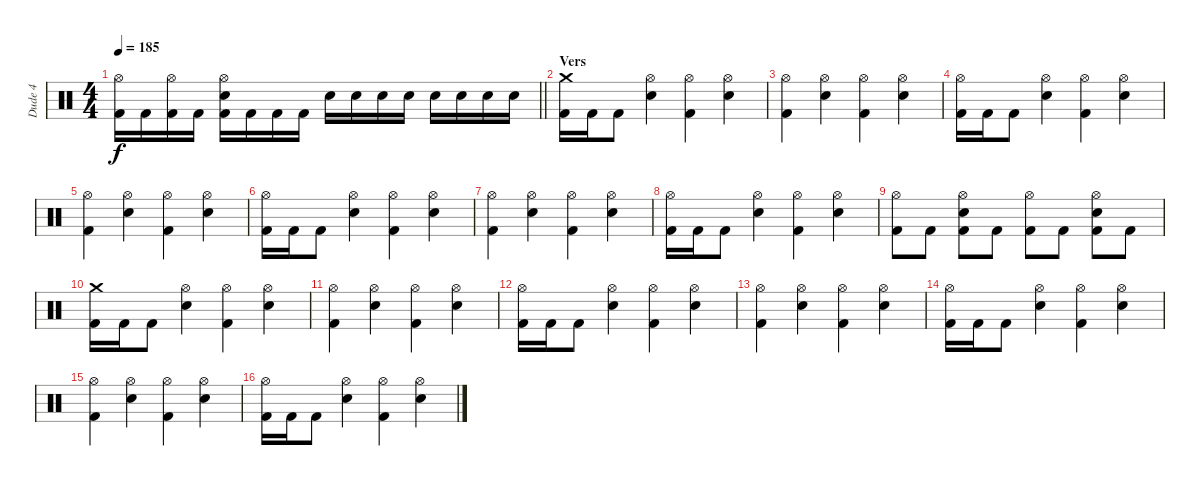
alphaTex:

\track ("Dude 4" "Dude 4") {instrument percussion}
\staff {score}
\articulation defaults
\ts (4 4)
\tempo 185
\clef neutral
\barLineRight lightlight
\ks c
("Hi-Hat (open)" "Kick (hit) 2").16{dy f} "Kick (hit) 2".16 ("Hi-Hat (open)" "Kick (hit) 2").16 "Kick (hit) 2".16 ("Hi-Hat (open)" "Electric Snare (hit)" "Kick (hit) 2").16 "Kick (hit) 2".16 "Kick (hit) 2".16 "Kick (hit) 2".16 "Electric Snare (hit)".16 "Electric Snare (hit)".16 "Electric Snare (hit)".16 "Electric Snare (hit)".16 "Electric Snare (hit)".16 "Electric Snare (hit)".16 "Electric Snare (hit)".16 "Electric Snare (hit)".16 |
\section ("" "Vers")
("Crash medium (hit)" "Kick (hit) 2").16 "Kick (hit) 2".16 "Kick (hit) 2".8 ("Hi-Hat (open)" "Electric Snare (hit)").4 ("Hi-Hat (open)" "Kick (hit) 2").4 ("Hi-Hat (open)" "Electric Snare (hit)").4 |
("Hi-Hat (open)" "Kick (hit) 2").4 ("Hi-Hat (open)" "Electric Snare (hit)").4 ("Hi-Hat (open)" "Kick (hit) 2").4 ("Hi-Hat (open)" "Electric Snare (hit)").4 |
("Hi-Hat (open)" "Kick (hit) 2").16 "Kick (hit) 2".16 "Kick (hit) 2".8 ("Hi-Hat (open)" "Electric Snare (hit)").4 ("Hi-Hat (open)" "Kick (hit) 2").4 ("Hi-Hat (open)" "Electric Snare (hit)").4 |
("Hi-Hat (open)" "Kick (hit) 2").4 ("Hi-Hat (open)" "Electric Snare (hit)").4 ("Hi-Hat (open)" "Kick (hit) 2").4 ("Hi-Hat (open)" "Electric Snare (hit)").4 |
("Hi-Hat (open)" "Kick (hit) 2").16 "Kick (hit) 2".16 "Kick (hit) 2".8 ("Hi-Hat (open)" "Electric Snare (hit)").4 ("Hi-Hat (open)" "Kick (hit) 2").4 ("Hi-Hat (open)" "Electric Snare (hit)").4 |
("Hi-Hat (open)" "Kick (hit) 2").4 ("Hi-Hat (open)" "Electric Snare (hit)").4 ("Hi-Hat (open)" "Kick (hit) 2").4 ("Hi-Hat (open)" "Electric Snare (hit)").4 |
("Hi-Hat (open)" "Kick (hit) 2").16 "Kick (hit) 2".16 "Kick (hit) 2".8 ("Hi-Hat (open)" "Electric Snare (hit)").4 ("Hi-Hat (open)" "Kick (hit) 2").4 ("Hi-Hat (open)" "Electric Snare (hit)").4 |
("Hi-Hat (open)" "Kick (hit) 2").8 "Kick (hit) 2".8 ("Hi-Hat (open)" "Electric Snare (hit)" "Kick (hit) 2").8 "Kick (hit) 2".8 ("Hi-Hat (open)" "Kick (hit) 2").8 "Kick (hit) 2".8 ("Hi-Hat (open)" "Electric Snare (hit)" "Kick (hit) 2").8 "Kick (hit) 2".8 |
("Crash medium (hit)" "Kick (hit) 2").16 "Kick (hit) 2".16 "Kick (hit) 2".8 ("Hi-Hat (open)" "Electric Snare (hit)").4 ("Hi-Hat (open)" "Kick (hit) 2").4 ("Hi-Hat (open)" "Electric Snare (hit)").4 |
("Hi-Hat (open)" "Kick (hit) 2").4 ("Hi-Hat (open)" "Electric Snare (hit)").4 ("Hi-Hat (open)" "Kick (hit) 2").4 ("Hi-Hat (open)" "Electric Snare (hit)").4 |
("Hi-Hat (open)" "Kick (hit) 2").16 "Kick (hit) 2".16 "Kick (hit) 2".8 ("Hi-Hat (open)" "Electric Snare (hit)").4 ("Hi-Hat (open)" "Kick (hit) 2").4 ("Hi-Hat (open)" "Electric Snare (hit)").4 |
("Hi-Hat (open)" "Kick (hit) 2").4 ("Hi-Hat (open)" "Electric Snare (hit)").4 ("Hi-Hat (open)" "Kick (hit) 2").4 ("Hi-Hat (open)" "Electric Snare (hit)").4 |
("Hi-Hat (open)" "Kick (hit) 2").16 "Kick (hit) 2".16 "Kick (hit) 2".8 ("Hi-Hat (open)" "Electric Snare (hit)").4 ("Hi-Hat (open)" "Kick (hit) 2").4 ("Hi-Hat (open)" "Electric Snare (hit)").4 |
("Hi-Hat (open)" "Kick (hit) 2").4 ("Hi-Hat (open)" "Electric Snare (hit)").4 ("Hi-Hat (open)" "Kick (hit) 2").4 ("Hi-Hat (open)" "Electric Snare (hit)").4 |
("Hi-Hat (open)" "Kick (hit) 2").16 "Kick (hit) 2".16 "Kick (hit) 2".8 ("Hi-Hat (open)" "Electric Snare (hit)").4 ("Hi-Hat (open)" "Kick (hit) 2").4 ("Hi-Hat (open)" "Electric Snare (hit)").4
